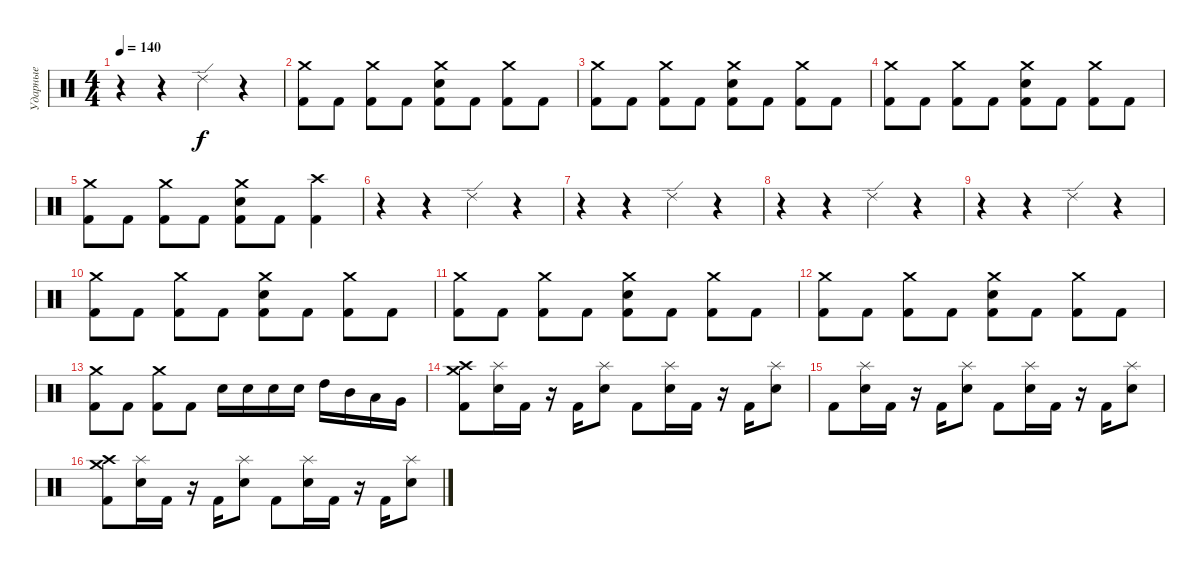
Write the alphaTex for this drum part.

\track ("Ударные" "Ударные") {instrument percussion}
\staff {score}
\articulation defaults
\ts (4 4)
\tempo 140
\clef neutral
\ks c
r.4{dy f} r.4 "Ride (edge) 2".4 r.4 |
("Crash medium (hit)" "Kick (hit) 2").8 "Kick (hit) 2".8 ("Crash medium (hit)" "Kick (hit) 2").8 "Kick (hit) 2".8 ("Crash medium (hit)" "Electric Snare (hit)" "Kick (hit) 2").8 "Kick (hit) 2".8 ("Crash medium (hit)" "Kick (hit) 2").8 "Kick (hit) 2".8 |
("Crash medium (hit)" "Kick (hit) 2").8 "Kick (hit) 2".8 ("Crash medium (hit)" "Kick (hit) 2").8 "Kick (hit) 2".8 ("Crash medium (hit)" "Electric Snare (hit)" "Kick (hit) 2").8 "Kick (hit) 2".8 ("Crash medium (hit)" "Kick (hit) 2").8 "Kick (hit) 2".8 |
("Crash medium (hit)" "Kick (hit) 2").8 "Kick (hit) 2".8 ("Crash medium (hit)" "Kick (hit) 2").8 "Kick (hit) 2".8 ("Crash medium (hit)" "Electric Snare (hit)" "Kick (hit) 2").8 "Kick (hit) 2".8 ("Crash medium (hit)" "Kick (hit) 2").8 "Kick (hit) 2".8 |
("Crash medium (hit)" "Kick (hit) 2").8 "Kick (hit) 2".8 ("Crash medium (hit)" "Kick (hit) 2").8 "Kick (hit) 2".8 ("Crash medium (hit)" "Electric Snare (hit)" "Kick (hit) 2").8 "Kick (hit) 2".8 ("Crash high (hit)" "Kick (hit) 2").4 |
r.4 r.4 "Ride (edge) 2".4 r.4 |
r.4 r.4 "Ride (edge) 2".4 r.4 |
r.4 r.4 "Ride (edge) 2".4 r.4 |
r.4 r.4 "Ride (edge) 2".4 r.4 |
("Crash medium (hit)" "Kick (hit) 2").8 "Kick (hit) 2".8 ("Crash medium (hit)" "Kick (hit) 2").8 "Kick (hit) 2".8 ("Crash medium (hit)" "Electric Snare (hit)" "Kick (hit) 2").8 "Kick (hit) 2".8 ("Crash medium (hit)" "Kick (hit) 2").8 "Kick (hit) 2".8 |
("Crash medium (hit)" "Kick (hit) 2").8 "Kick (hit) 2".8 ("Crash medium (hit)" "Kick (hit) 2").8 "Kick (hit) 2".8 ("Crash medium (hit)" "Electric Snare (hit)" "Kick (hit) 2").8 "Kick (hit) 2".8 ("Crash medium (hit)" "Kick (hit) 2").8 "Kick (hit) 2".8 |
("Crash medium (hit)" "Kick (hit) 2").8 "Kick (hit) 2".8 ("Crash medium (hit)" "Kick (hit) 2").8 "Kick (hit) 2".8 ("Crash medium (hit)" "Electric Snare (hit)" "Kick (hit) 2").8 "Kick (hit) 2".8 ("Crash medium (hit)" "Kick (hit) 2").8 "Kick (hit) 2".8 |
("Crash medium (hit)" "Kick (hit) 2").8 "Kick (hit) 2".8 ("Crash medium (hit)" "Kick (hit) 2").8 "Kick (hit) 2".8 "Electric Snare (hit)".16 "Electric Snare (hit)".16 "Electric Snare (hit)".16 "Electric Snare (hit)".16 "High Tom (hit)".16 "Mid Tom (hit)".16 "Low Tom (hit)".16 "Very Low Tom (hit)".16 |
("Crash medium (hit)" "Crash high (hit)" "Kick (hit) 2").8 ("Splash (hit)" "Electric Snare (hit)").16 "Kick (hit) 2".16 r.16 "Kick (hit) 2".16 ("Splash (hit)" "Electric Snare (hit)").8 "Kick (hit) 2".8 ("Splash (hit)" "Electric Snare (hit)").16 "Kick (hit) 2".16 r.16 "Kick (hit) 2".16 ("Splash (hit)" "Electric Snare (hit)").8 |
"Kick (hit) 2".8 ("Splash (hit)" "Electric Snare (hit)").16 "Kick (hit) 2".16 r.16 "Kick (hit) 2".16 ("Splash (hit)" "Electric Snare (hit)").8 "Kick (hit) 2".8 ("Splash (hit)" "Electric Snare (hit)").16 "Kick (hit) 2".16 r.16 "Kick (hit) 2".16 ("Splash (hit)" "Electric Snare (hit)").8 |
("Crash medium (hit)" "Crash high (hit)" "Kick (hit) 2").8 ("Splash (hit)" "Electric Snare (hit)").16 "Kick (hit) 2".16 r.16 "Kick (hit) 2".16 ("Splash (hit)" "Electric Snare (hit)").8 "Kick (hit) 2".8 ("Splash (hit)" "Electric Snare (hit)").16 "Kick (hit) 2".16 r.16 "Kick (hit) 2".16 ("Splash (hit)" "Electric Snare (hit)").8
